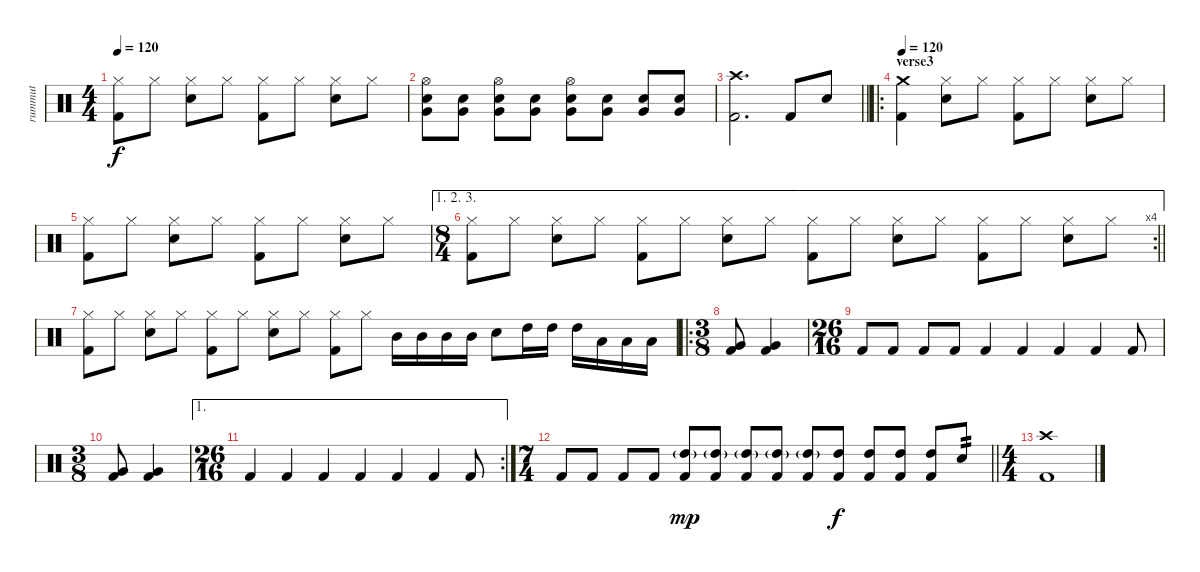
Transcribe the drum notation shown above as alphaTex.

\track ("rummut" "rummut") {instrument percussion}
\staff {score}
\articulation defaults
\ts (4 4)
\tempo 120
\clef neutral
\ks c
("Hi-Hat (closed)" "Kick (hit) 2").8{dy f} "Hi-Hat (closed)".8 ("Hi-Hat (closed)" "Electric Snare (hit)").8 "Hi-Hat (closed)".8 ("Hi-Hat (closed)" "Kick (hit) 2").8 "Hi-Hat (closed)".8 ("Hi-Hat (closed)" "Electric Snare (hit)").8 "Hi-Hat (closed)".8 |
("Very Low Tom (hit)" "Electric Snare (hit)" "Hi-Hat (open)").8 ("Very Low Tom (hit)" "Electric Snare (hit)").8 ("Very Low Tom (hit)" "Electric Snare (hit)" "Hi-Hat (open)").8 ("Very Low Tom (hit)" "Electric Snare (hit)").8 ("Very Low Tom (hit)" "Electric Snare (hit)" "Hi-Hat (open)").8 ("Very Low Tom (hit)" "Electric Snare (hit)").8 ("Very Low Tom (hit)" "Electric Snare (hit)").8 ("Very Low Tom (hit)" "Electric Snare (hit)").8 |
\barLineRight lightlight
("Kick (hit) 2" "Crash high (hit)").2{d} "Kick (hit) 2".8 "Electric Snare (hit)".8 |
\ro
\section ("" "verse3")
\tempo 120
("Crash medium (hit)" "Kick (hit) 2").4 ("Hi-Hat (closed)" "Electric Snare (hit)").8 "Hi-Hat (closed)".8 ("Hi-Hat (closed)" "Kick (hit) 2").8 "Hi-Hat (closed)".8 ("Hi-Hat (closed)" "Electric Snare (hit)").8 "Hi-Hat (closed)".8 |
("Hi-Hat (closed)" "Kick (hit) 2").8 "Hi-Hat (closed)".8 ("Hi-Hat (closed)" "Electric Snare (hit)").8 "Hi-Hat (closed)".8 ("Hi-Hat (closed)" "Kick (hit) 2").8 "Hi-Hat (closed)".8 ("Hi-Hat (closed)" "Electric Snare (hit)").8 "Hi-Hat (closed)".8 |
\ae (1 2 3)
\rc 4
\ts (8 4)
\barLineRight lightlight
("Hi-Hat (closed)" "Kick (hit) 2").8 "Hi-Hat (closed)".8 ("Hi-Hat (closed)" "Electric Snare (hit)").8 "Hi-Hat (closed)".8 ("Hi-Hat (closed)" "Kick (hit) 2").8 "Hi-Hat (closed)".8 ("Hi-Hat (closed)" "Electric Snare (hit)").8 "Hi-Hat (closed)".8 ("Hi-Hat (closed)" "Kick (hit) 2").8 "Hi-Hat (closed)".8 ("Hi-Hat (closed)" "Electric Snare (hit)").8 "Hi-Hat (closed)".8 ("Hi-Hat (closed)" "Kick (hit) 2").8 "Hi-Hat (closed)".8 ("Hi-Hat (closed)" "Electric Snare (hit)").8 "Hi-Hat (closed)".8 |
\section ("" "")
("Hi-Hat (closed)" "Kick (hit) 2").8 "Hi-Hat (closed)".8 ("Hi-Hat (closed)" "Electric Snare (hit)").8 "Hi-Hat (closed)".8 ("Hi-Hat (closed)" "Kick (hit) 2").8 "Hi-Hat (closed)".8 ("Hi-Hat (closed)" "Electric Snare (hit)").8 "Hi-Hat (closed)".8 ("Hi-Hat (closed)" "Kick (hit) 2").8 "Hi-Hat (closed)".8 "Mid Tom (hit)".16 "Mid Tom (hit)".16 "Mid Tom (hit)".16 "Mid Tom (hit)".16 "Electric Snare (hit)".8 "High Tom (hit)".16 "High Tom (hit)".16 "High Tom (hit)".16 "Low Tom (hit)".16 "Low Tom (hit)".16 "Low Tom (hit)".16 |
\ro
\ts (3 8)
("Kick (hit) 2" "Very Low Tom (hit)").8 ("Kick (hit) 2" "Very Low Tom (hit)").4 |
\ts (26 16)
"Kick (hit) 2".8 "Kick (hit) 2".8 "Kick (hit) 2".8 "Kick (hit) 2".8 "Kick (hit) 2".4 "Kick (hit) 2".4 "Kick (hit) 2".4 "Kick (hit) 2".4 "Kick (hit) 2".8 |
\ts (3 8)
("Kick (hit) 2" "Very Low Tom (hit)").8 ("Kick (hit) 2" "Very Low Tom (hit)").4 |
\ae 1
\rc 2
\ts (26 16)
"Kick (hit) 2".4 "Kick (hit) 2".4 "Kick (hit) 2".4 "Kick (hit) 2".4 "Kick (hit) 2".4 "Kick (hit) 2".4 "Kick (hit) 2".8 |
\ts (7 4)
\barLineRight lightlight "Kick (hit) 2".8 "Kick (hit) 2".8 "Kick (hit) 2".8 "Kick (hit) 2".8
("Kick (hit) 2" "High Tom (hit)"{g}).8{dy mp} ("Kick (hit) 2" "High Tom (hit)"{g}).8 ("Kick (hit) 2" "High Tom (hit)"{g}).8 ("Kick (hit) 2" "High Tom (hit)"{g}).8 ("Kick (hit) 2" "High Tom (hit)"{g}).8 ("Kick (hit) 2" "High Tom (hit)").8{dy f} ("Kick (hit) 2" "High Tom (hit)").8 ("Kick (hit) 2" "High Tom (hit)").8 ("Kick (hit) 2" "High Tom (hit)").8 "Electric Snare (hit)".8{tp 2} |
\ts (4 4)
("Crash high (hit)" "Kick (hit) 2").1
